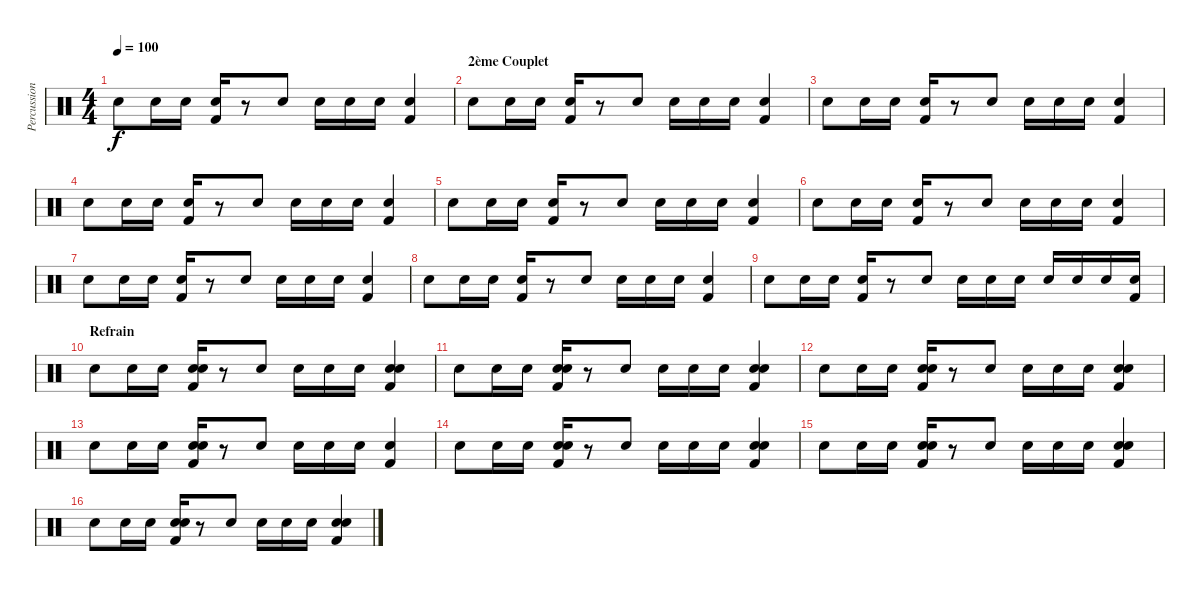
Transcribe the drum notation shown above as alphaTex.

\track ("Percussions" "Percussion") {instrument percussion}
\staff {score}
\articulation defaults
\ts (4 4)
\tempo 100
\clef neutral
\ks c "Electric Snare (hit)".8{dy f} "Electric Snare (hit)".16 "Electric Snare (hit)".16
("Snare (hit) 2" "Kick (hit) 2").16 r.8 "Electric Snare (hit)".8 "Electric Snare (hit)".16 "Electric Snare (hit)".16 "Electric Snare (hit)".16 ("Snare (hit) 2" "Kick (hit) 2").4 |
\section ("" "2ème Couplet")
"Electric Snare (hit)".8 "Electric Snare (hit)".16 "Electric Snare (hit)".16 ("Snare (hit) 2" "Kick (hit) 2").16 r.8 "Electric Snare (hit)".8 "Electric Snare (hit)".16 "Electric Snare (hit)".16 "Electric Snare (hit)".16 ("Snare (hit) 2" "Kick (hit) 2").4 |
"Electric Snare (hit)".8 "Electric Snare (hit)".16 "Electric Snare (hit)".16 ("Snare (hit) 2" "Kick (hit) 2").16 r.8 "Electric Snare (hit)".8 "Electric Snare (hit)".16 "Electric Snare (hit)".16 "Electric Snare (hit)".16 ("Snare (hit) 2" "Kick (hit) 2").4 |
"Electric Snare (hit)".8 "Electric Snare (hit)".16 "Electric Snare (hit)".16 ("Snare (hit) 2" "Kick (hit) 2").16 r.8 "Electric Snare (hit)".8 "Electric Snare (hit)".16 "Electric Snare (hit)".16 "Electric Snare (hit)".16 ("Snare (hit) 2" "Kick (hit) 2").4 |
"Electric Snare (hit)".8 "Electric Snare (hit)".16 "Electric Snare (hit)".16 ("Snare (hit) 2" "Kick (hit) 2").16 r.8 "Electric Snare (hit)".8 "Electric Snare (hit)".16 "Electric Snare (hit)".16 "Electric Snare (hit)".16 ("Snare (hit) 2" "Kick (hit) 2").4 |
"Electric Snare (hit)".8 "Electric Snare (hit)".16 "Electric Snare (hit)".16 ("Snare (hit) 2" "Kick (hit) 2").16 r.8 "Electric Snare (hit)".8 "Electric Snare (hit)".16 "Electric Snare (hit)".16 "Electric Snare (hit)".16 ("Snare (hit) 2" "Kick (hit) 2").4 |
"Electric Snare (hit)".8 "Electric Snare (hit)".16 "Electric Snare (hit)".16 ("Snare (hit) 2" "Kick (hit) 2").16 r.8 "Electric Snare (hit)".8 "Electric Snare (hit)".16 "Electric Snare (hit)".16 "Electric Snare (hit)".16 ("Snare (hit) 2" "Kick (hit) 2").4 |
"Electric Snare (hit)".8 "Electric Snare (hit)".16 "Electric Snare (hit)".16 ("Snare (hit) 2" "Kick (hit) 2").16 r.8 "Electric Snare (hit)".8 "Electric Snare (hit)".16 "Electric Snare (hit)".16 "Electric Snare (hit)".16 ("Snare (hit) 2" "Kick (hit) 2").4 |
"Electric Snare (hit)".8 "Electric Snare (hit)".16 "Electric Snare (hit)".16 ("Snare (hit) 2" "Kick (hit) 2").16 r.8 "Electric Snare (hit)".8 "Electric Snare (hit)".16 "Electric Snare (hit)".16 "Electric Snare (hit)".16 "Electric Snare (hit)".16 "Electric Snare (hit)".16 "Electric Snare (hit)".16 ("Snare (hit) 2" "Kick (hit) 2").16 |
\section ("" "Refrain")
"Electric Snare (hit)".8 "Electric Snare (hit)".16 "Electric Snare (hit)".16 ("Snare (hit) 2" "Kick (hit) 2" "Electric Snare (hit)").16 r.8 "Electric Snare (hit)".8 "Electric Snare (hit)".16 "Electric Snare (hit)".16 "Electric Snare (hit)".16 ("Snare (hit) 2" "Kick (hit) 2" "Electric Snare (hit)").4 |
"Electric Snare (hit)".8 "Electric Snare (hit)".16 "Electric Snare (hit)".16 ("Snare (hit) 2" "Kick (hit) 2" "Electric Snare (hit)").16 r.8 "Electric Snare (hit)".8 "Electric Snare (hit)".16 "Electric Snare (hit)".16 "Electric Snare (hit)".16 ("Snare (hit) 2" "Kick (hit) 2" "Electric Snare (hit)").4 |
"Electric Snare (hit)".8 "Electric Snare (hit)".16 "Electric Snare (hit)".16 ("Snare (hit) 2" "Kick (hit) 2" "Electric Snare (hit)").16 r.8 "Electric Snare (hit)".8 "Electric Snare (hit)".16 "Electric Snare (hit)".16 "Electric Snare (hit)".16 ("Snare (hit) 2" "Kick (hit) 2" "Electric Snare (hit)").4 |
"Electric Snare (hit)".8 "Electric Snare (hit)".16 "Electric Snare (hit)".16 ("Snare (hit) 2" "Kick (hit) 2" "Electric Snare (hit)").16 r.8 "Electric Snare (hit)".8 "Electric Snare (hit)".16 "Electric Snare (hit)".16 "Electric Snare (hit)".16 ("Snare (hit) 2" "Kick (hit) 2").4 |
"Electric Snare (hit)".8 "Electric Snare (hit)".16 "Electric Snare (hit)".16 ("Snare (hit) 2" "Kick (hit) 2" "Electric Snare (hit)").16 r.8 "Electric Snare (hit)".8 "Electric Snare (hit)".16 "Electric Snare (hit)".16 "Electric Snare (hit)".16 ("Snare (hit) 2" "Kick (hit) 2" "Electric Snare (hit)").4 |
"Electric Snare (hit)".8 "Electric Snare (hit)".16 "Electric Snare (hit)".16 ("Snare (hit) 2" "Kick (hit) 2" "Electric Snare (hit)").16 r.8 "Electric Snare (hit)".8 "Electric Snare (hit)".16 "Electric Snare (hit)".16 "Electric Snare (hit)".16 ("Snare (hit) 2" "Kick (hit) 2" "Electric Snare (hit)").4 |
"Electric Snare (hit)".8 "Electric Snare (hit)".16 "Electric Snare (hit)".16 ("Snare (hit) 2" "Kick (hit) 2" "Electric Snare (hit)").16 r.8 "Electric Snare (hit)".8 "Electric Snare (hit)".16 "Electric Snare (hit)".16 "Electric Snare (hit)".16 ("Snare (hit) 2" "Kick (hit) 2" "Electric Snare (hit)").4
